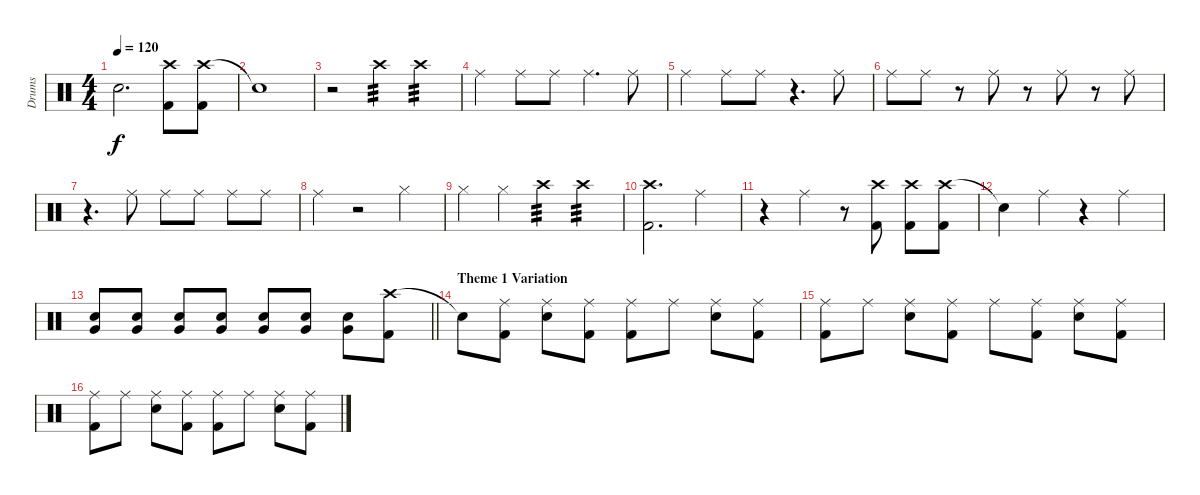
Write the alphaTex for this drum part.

\track ("Drums" "Drums") {instrument percussion}
\staff {score}
\articulation defaults
\ts (4 4)
\tempo 120
\clef neutral
\ks c "Snare (hit)"{t}.2{d dy f}
("Crash high (hit)" "Kick (hit) 2").8 ("Crash high (hit)" "Kick (hit) 2").8 |
"Snare (hit)"{t}.1 |
r.2 "Crash high (hit)".4{tp 3} "Crash high (hit)".4{tp 3} |
"Ride (middle)".4 "Ride (middle)".8 "Ride (middle)".8 "Ride (middle)".4{d} "Ride (middle)".8 |
"Ride (middle)".4 "Ride (middle)".8 "Ride (middle)".8 r.4{d} "Ride (middle)".8 |
"Ride (middle)".8 "Ride (middle)".8 r.8 "Ride (middle)".8 r.8 "Ride (middle)".8 r.8 "Ride (middle)".8 |
r.4{d} "Ride (middle)".8 "Ride (middle)".8 "Ride (middle)".8 "Ride (middle)".8 "Ride (middle)".8 |
"Ride (middle)".4 r.2 "Hi-Hat (closed)".4 |
"Hi-Hat (closed)".4 "Hi-Hat (closed)".4 "Crash high (hit)".4{tp 3} "Crash high (hit)".4{tp 3} |
("Crash high (hit)" "Kick (hit) 2").2{d} "Ride (middle)".4 |
r.4 "Ride (middle)".4 r.8 ("Crash high (hit)" "Kick (hit) 2").8 ("Crash high (hit)" "Kick (hit) 2").8 ("Crash high (hit)" "Kick (hit) 2").8 |
"Snare (hit)"{t}.4 "Ride (middle)".4 r.4 "Ride (middle)".4 |
\barLineRight lightlight
("Snare (hit) 2" "Very Low Tom (hit)").8 ("Snare (hit) 2" "Very Low Tom (hit)").8 ("Snare (hit) 2" "Very Low Tom (hit)").8 ("Snare (hit) 2" "Very Low Tom (hit)").8 ("Snare (hit) 2" "Very Low Tom (hit)").8 ("Snare (hit) 2" "Very Low Tom (hit)").8 ("Snare (hit) 2" "Very Low Tom (hit)").8 ("Crash high (hit)" "Kick (hit) 2").8 |
\section ("" "Theme 1 Variation")
"Snare (hit)"{t}.8 ("Ride (middle)" "Kick (hit) 2").8 ("Ride (middle)" "Snare (hit) 2").8 ("Ride (middle)" "Kick (hit) 2").8 ("Ride (middle)" "Kick (hit) 2").8 "Ride (middle)".8 ("Ride (middle)" "Snare (hit) 2").8 ("Ride (middle)" "Kick (hit) 2").8 |
("Ride (middle)" "Kick (hit) 2").8 "Ride (middle)".8 ("Ride (middle)" "Snare (hit) 2").8 ("Ride (middle)" "Kick (hit) 2").8 "Ride (middle)".8 ("Ride (middle)" "Kick (hit) 2").8 ("Ride (middle)" "Snare (hit) 2").8 ("Ride (middle)" "Kick (hit) 2").8 |
("Ride (middle)" "Kick (hit) 2").8 "Ride (middle)".8 ("Ride (middle)" "Snare (hit) 2").8 ("Ride (middle)" "Kick (hit) 2").8 ("Ride (middle)" "Kick (hit) 2").8 "Ride (middle)".8 ("Ride (middle)" "Snare (hit) 2").8 ("Ride (middle)" "Kick (hit) 2").8
